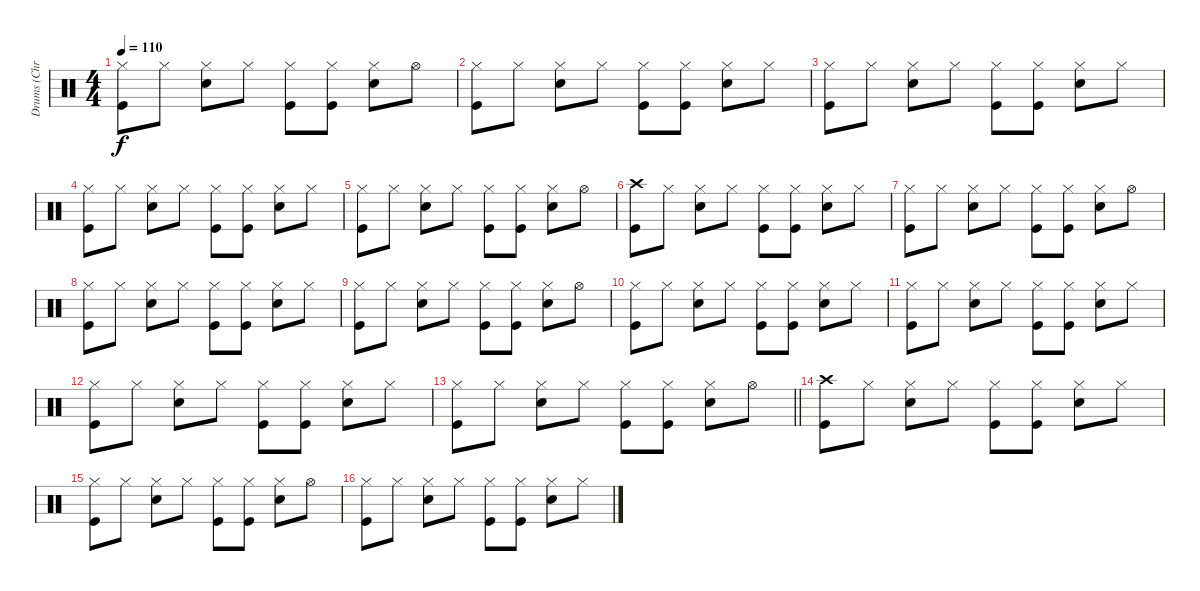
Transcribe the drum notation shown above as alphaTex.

\track ("Drums (Chris Frantz)" "Drums (Chr") {instrument percussion}
\staff {score}
\articulation defaults
\ts (4 4)
\tempo 110
\clef neutral
\ks c
("Hi-Hat (closed)" "Kick (hit)").8{dy f} "Hi-Hat (closed)".8 ("Hi-Hat (closed)" "Snare (hit) 2").8 "Hi-Hat (closed)".8 ("Hi-Hat (closed)" "Kick (hit)").8 ("Hi-Hat (closed)" "Kick (hit)").8 ("Hi-Hat (closed)" "Snare (hit) 2").8 "Hi-Hat (open)".8 |
("Hi-Hat (closed)" "Kick (hit)").8 "Hi-Hat (closed)".8 ("Hi-Hat (closed)" "Snare (hit) 2").8 "Hi-Hat (closed)".8 ("Hi-Hat (closed)" "Kick (hit)").8 ("Hi-Hat (closed)" "Kick (hit)").8 ("Hi-Hat (closed)" "Snare (hit) 2").8 "Hi-Hat (closed)".8 |
("Hi-Hat (closed)" "Kick (hit)").8 "Hi-Hat (closed)".8 ("Hi-Hat (closed)" "Snare (hit) 2").8 "Hi-Hat (closed)".8 ("Hi-Hat (closed)" "Kick (hit)").8 ("Hi-Hat (closed)" "Kick (hit)").8 ("Hi-Hat (closed)" "Snare (hit) 2").8 "Hi-Hat (closed)".8 |
("Hi-Hat (closed)" "Kick (hit)").8 "Hi-Hat (closed)".8 ("Hi-Hat (closed)" "Snare (hit) 2").8 "Hi-Hat (closed)".8 ("Hi-Hat (closed)" "Kick (hit)").8 ("Hi-Hat (closed)" "Kick (hit)").8 ("Hi-Hat (closed)" "Snare (hit) 2").8 "Hi-Hat (closed)".8 |
("Hi-Hat (closed)" "Kick (hit)").8 "Hi-Hat (closed)".8 ("Hi-Hat (closed)" "Snare (hit) 2").8 "Hi-Hat (closed)".8 ("Hi-Hat (closed)" "Kick (hit)").8 ("Hi-Hat (closed)" "Kick (hit)").8 ("Hi-Hat (closed)" "Snare (hit) 2").8 "Hi-Hat (open)".8 |
("Crash high (hit)" "Kick (hit)").8 "Hi-Hat (closed)".8 ("Hi-Hat (closed)" "Snare (hit) 2").8 "Hi-Hat (closed)".8 ("Hi-Hat (closed)" "Kick (hit)").8 ("Hi-Hat (closed)" "Kick (hit)").8 ("Hi-Hat (closed)" "Snare (hit) 2").8 "Hi-Hat (closed)".8 |
("Hi-Hat (closed)" "Kick (hit)").8 "Hi-Hat (closed)".8 ("Hi-Hat (closed)" "Snare (hit) 2").8 "Hi-Hat (closed)".8 ("Hi-Hat (closed)" "Kick (hit)").8 ("Hi-Hat (closed)" "Kick (hit)").8 ("Hi-Hat (closed)" "Snare (hit) 2").8 "Hi-Hat (open)".8 |
("Hi-Hat (closed)" "Kick (hit)").8 "Hi-Hat (closed)".8 ("Hi-Hat (closed)" "Snare (hit) 2").8 "Hi-Hat (closed)".8 ("Hi-Hat (closed)" "Kick (hit)").8 ("Hi-Hat (closed)" "Kick (hit)").8 ("Hi-Hat (closed)" "Snare (hit) 2").8 "Hi-Hat (closed)".8 |
("Hi-Hat (closed)" "Kick (hit)").8 "Hi-Hat (closed)".8 ("Hi-Hat (closed)" "Snare (hit) 2").8 "Hi-Hat (closed)".8 ("Hi-Hat (closed)" "Kick (hit)").8 ("Hi-Hat (closed)" "Kick (hit)").8 ("Hi-Hat (closed)" "Snare (hit) 2").8 "Hi-Hat (open)".8 |
("Hi-Hat (closed)" "Kick (hit)").8 "Hi-Hat (closed)".8 ("Hi-Hat (closed)" "Snare (hit) 2").8 "Hi-Hat (closed)".8 ("Hi-Hat (closed)" "Kick (hit)").8 ("Hi-Hat (closed)" "Kick (hit)").8 ("Hi-Hat (closed)" "Snare (hit) 2").8 "Hi-Hat (closed)".8 |
("Hi-Hat (closed)" "Kick (hit)").8 "Hi-Hat (closed)".8 ("Hi-Hat (closed)" "Snare (hit) 2").8 "Hi-Hat (closed)".8 ("Hi-Hat (closed)" "Kick (hit)").8 ("Hi-Hat (closed)" "Kick (hit)").8 ("Hi-Hat (closed)" "Snare (hit) 2").8 "Hi-Hat (closed)".8 |
("Hi-Hat (closed)" "Kick (hit)").8 "Hi-Hat (closed)".8 ("Hi-Hat (closed)" "Snare (hit) 2").8 "Hi-Hat (closed)".8 ("Hi-Hat (closed)" "Kick (hit)").8 ("Hi-Hat (closed)" "Kick (hit)").8 ("Hi-Hat (closed)" "Snare (hit) 2").8 "Hi-Hat (closed)".8 |
\barLineRight lightlight
("Hi-Hat (closed)" "Kick (hit)").8 "Hi-Hat (closed)".8 ("Hi-Hat (closed)" "Snare (hit) 2").8 "Hi-Hat (closed)".8 ("Hi-Hat (closed)" "Kick (hit)").8 ("Hi-Hat (closed)" "Kick (hit)").8 ("Hi-Hat (closed)" "Snare (hit) 2").8 "Hi-Hat (open)".8 |
("Crash high (hit)" "Kick (hit)").8 "Hi-Hat (closed)".8 ("Hi-Hat (closed)" "Snare (hit) 2").8 "Hi-Hat (closed)".8 ("Hi-Hat (closed)" "Kick (hit)").8 ("Hi-Hat (closed)" "Kick (hit)").8 ("Hi-Hat (closed)" "Snare (hit) 2").8 "Hi-Hat (closed)".8 |
("Hi-Hat (closed)" "Kick (hit)").8 "Hi-Hat (closed)".8 ("Hi-Hat (closed)" "Snare (hit) 2").8 "Hi-Hat (closed)".8 ("Hi-Hat (closed)" "Kick (hit)").8 ("Hi-Hat (closed)" "Kick (hit)").8 ("Hi-Hat (closed)" "Snare (hit) 2").8 "Hi-Hat (open)".8 |
("Hi-Hat (closed)" "Kick (hit)").8 "Hi-Hat (closed)".8 ("Hi-Hat (closed)" "Snare (hit) 2").8 "Hi-Hat (closed)".8 ("Hi-Hat (closed)" "Kick (hit)").8 ("Hi-Hat (closed)" "Kick (hit)").8 ("Hi-Hat (closed)" "Snare (hit) 2").8 "Hi-Hat (closed)".8
